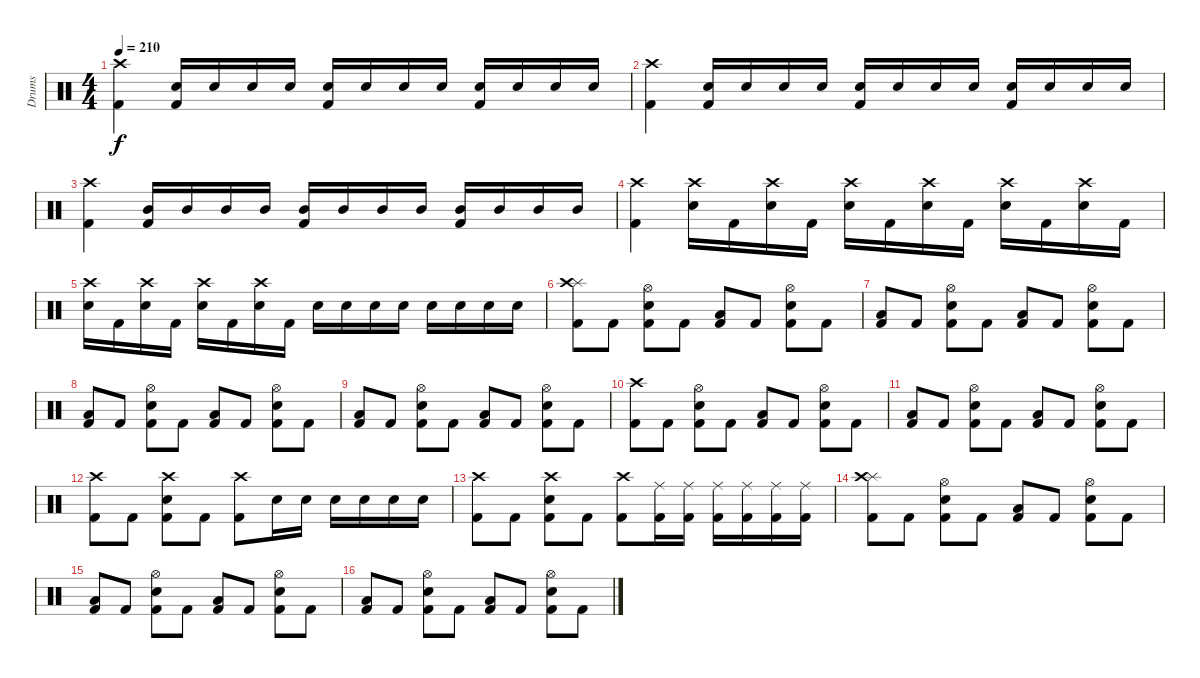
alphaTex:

\track ("Drums" "Drums") {instrument percussion}
\staff {score}
\articulation defaults
\ts (4 4)
\tempo 210
\clef neutral
\ks c
("Crash high (hit)" "Kick (hit) 2").4{dy f} ("Snare (hit) 2" "Kick (hit) 2").16 "Snare (hit) 2".16 "Snare (hit) 2".16 "Snare (hit) 2".16 ("Snare (hit) 2" "Kick (hit) 2").16 "Snare (hit) 2".16 "Snare (hit) 2".16 "Snare (hit) 2".16 ("Snare (hit) 2" "Kick (hit) 2").16 "Snare (hit) 2".16 "Snare (hit) 2".16 "Snare (hit) 2".16 |
("Crash high (hit)" "Kick (hit) 2").4 ("Snare (hit) 2" "Kick (hit) 2").16 "Snare (hit) 2".16 "Snare (hit) 2".16 "Snare (hit) 2".16 ("Snare (hit) 2" "Kick (hit) 2").16 "Snare (hit) 2".16 "Snare (hit) 2".16 "Snare (hit) 2".16 ("Snare (hit) 2" "Kick (hit) 2").16 "Snare (hit) 2".16 "Snare (hit) 2".16 "Snare (hit) 2".16 |
("Crash high (hit)" "Kick (hit) 2").4 ("Mid Tom (hit)" "Kick (hit) 2").16 "Mid Tom (hit)".16 "Mid Tom (hit)".16 "Mid Tom (hit)".16 ("Mid Tom (hit)" "Kick (hit) 2").16 "Mid Tom (hit)".16 "Mid Tom (hit)".16 "Mid Tom (hit)".16 ("Mid Tom (hit)" "Kick (hit) 2").16 "Mid Tom (hit)".16 "Mid Tom (hit)".16 "Mid Tom (hit)".16 |
("Crash high (hit)" "Kick (hit) 2").4 ("Crash high (hit)" "Snare (hit) 2").16 "Kick (hit) 2".16 ("Crash high (hit)" "Snare (hit) 2").16 "Kick (hit) 2".16 ("Crash high (hit)" "Snare (hit) 2").16 "Kick (hit) 2".16 ("Crash high (hit)" "Snare (hit) 2").16 "Kick (hit) 2".16 ("Crash high (hit)" "Snare (hit) 2").16 "Kick (hit) 2".16 ("Crash high (hit)" "Snare (hit) 2").16 "Kick (hit) 2".16 |
("Crash high (hit)" "Snare (hit) 2").16 "Kick (hit) 2".16 ("Crash high (hit)" "Snare (hit) 2").16 "Kick (hit) 2".16 ("Crash high (hit)" "Snare (hit) 2").16 "Kick (hit) 2".16 ("Crash high (hit)" "Snare (hit) 2").16 "Kick (hit) 2".16 "Snare (hit) 2".16 "Snare (hit) 2".16 "Snare (hit) 2".16 "Snare (hit) 2".16 "Snare (hit) 2".16 "Snare (hit) 2".16 "Snare (hit) 2".16 "Snare (hit) 2".16 |
("Splash (hit)" "Crash high (hit)" "Kick (hit) 2").8 "Kick (hit) 2".8 ("Hi-Hat (open)" "Snare (hit) 2" "Kick (hit) 2").8 "Kick (hit) 2".8 ("Low Tom (hit)" "Kick (hit) 2").8 "Kick (hit) 2".8 ("Hi-Hat (open)" "Snare (hit) 2" "Kick (hit) 2").8 "Kick (hit) 2".8 |
("Low Tom (hit)" "Kick (hit) 2").8 "Kick (hit) 2".8 ("Hi-Hat (open)" "Snare (hit) 2" "Kick (hit) 2").8 "Kick (hit) 2".8 ("Low Tom (hit)" "Kick (hit) 2").8 "Kick (hit) 2".8 ("Hi-Hat (open)" "Snare (hit) 2" "Kick (hit) 2").8 "Kick (hit) 2".8 |
("Low Tom (hit)" "Kick (hit) 2").8 "Kick (hit) 2".8 ("Hi-Hat (open)" "Snare (hit) 2" "Kick (hit) 2").8 "Kick (hit) 2".8 ("Low Tom (hit)" "Kick (hit) 2").8 "Kick (hit) 2".8 ("Hi-Hat (open)" "Snare (hit) 2" "Kick (hit) 2").8 "Kick (hit) 2".8 |
("Low Tom (hit)" "Kick (hit) 2").8 "Kick (hit) 2".8 ("Hi-Hat (open)" "Snare (hit) 2" "Kick (hit) 2").8 "Kick (hit) 2".8 ("Low Tom (hit)" "Kick (hit) 2").8 "Kick (hit) 2".8 ("Hi-Hat (open)" "Snare (hit) 2" "Kick (hit) 2").8 "Kick (hit) 2".8 |
("Crash high (hit)" "Kick (hit) 2").8 "Kick (hit) 2".8 ("Hi-Hat (open)" "Snare (hit) 2" "Kick (hit) 2").8 "Kick (hit) 2".8 ("Low Tom (hit)" "Kick (hit) 2").8 "Kick (hit) 2".8 ("Hi-Hat (open)" "Snare (hit) 2" "Kick (hit) 2").8 "Kick (hit) 2".8 |
("Low Tom (hit)" "Kick (hit) 2").8 "Kick (hit) 2".8 ("Hi-Hat (open)" "Snare (hit) 2" "Kick (hit) 2").8 "Kick (hit) 2".8 ("Low Tom (hit)" "Kick (hit) 2").8 "Kick (hit) 2".8 ("Hi-Hat (open)" "Snare (hit) 2" "Kick (hit) 2").8 "Kick (hit) 2".8 |
("Crash high (hit)" "Kick (hit) 2").8 "Kick (hit) 2".8 ("Crash high (hit)" "Snare (hit) 2" "Kick (hit) 2").8 "Kick (hit) 2".8 ("Crash high (hit)" "Kick (hit) 2").8 "Snare (hit) 2".16 "Snare (hit) 2".16 "Snare (hit) 2".16 "Snare (hit) 2".16 "Snare (hit) 2".16 "Snare (hit) 2".16 |
("Crash high (hit)" "Kick (hit) 2").8 "Kick (hit) 2".8 ("Crash high (hit)" "Snare (hit) 2" "Kick (hit) 2").8 "Kick (hit) 2".8 ("Crash high (hit)" "Kick (hit) 2").8 ("Ride (middle)" "Kick (hit) 2").16 ("Ride (middle)" "Kick (hit) 2").16 ("Ride (middle)" "Kick (hit) 2").16 ("Ride (middle)" "Kick (hit) 2").16 ("Ride (middle)" "Kick (hit) 2").16 ("Ride (middle)" "Kick (hit) 2").16 |
("Splash (hit)" "Crash high (hit)" "Kick (hit) 2").8 "Kick (hit) 2".8 ("Hi-Hat (open)" "Snare (hit) 2" "Kick (hit) 2").8 "Kick (hit) 2".8 ("Low Tom (hit)" "Kick (hit) 2").8 "Kick (hit) 2".8 ("Hi-Hat (open)" "Snare (hit) 2" "Kick (hit) 2").8 "Kick (hit) 2".8 |
("Low Tom (hit)" "Kick (hit) 2").8 "Kick (hit) 2".8 ("Hi-Hat (open)" "Snare (hit) 2" "Kick (hit) 2").8 "Kick (hit) 2".8 ("Low Tom (hit)" "Kick (hit) 2").8 "Kick (hit) 2".8 ("Hi-Hat (open)" "Snare (hit) 2" "Kick (hit) 2").8 "Kick (hit) 2".8 |
("Low Tom (hit)" "Kick (hit) 2").8 "Kick (hit) 2".8 ("Hi-Hat (open)" "Snare (hit) 2" "Kick (hit) 2").8 "Kick (hit) 2".8 ("Low Tom (hit)" "Kick (hit) 2").8 "Kick (hit) 2".8 ("Hi-Hat (open)" "Snare (hit) 2" "Kick (hit) 2").8 "Kick (hit) 2".8
